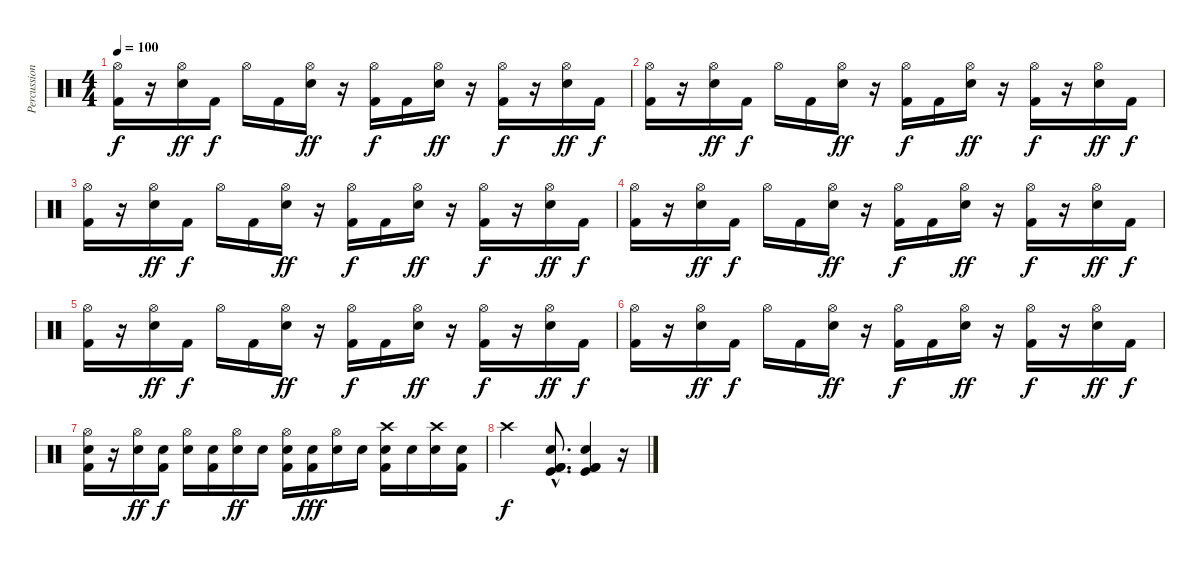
\track ("Percussion" "Percussion") {instrument percussion}
\staff {score}
\articulation defaults
\ts (4 4)
\tempo 100
\clef neutral
\ks c
("Hi-Hat (open)" "Kick (hit) 2").16{dy f} r.16 ("Hi-Hat (open)" "Electric Snare (hit)").16{dy ff} "Kick (hit) 2".16{dy f} "Hi-Hat (open)".16 "Kick (hit) 2".16 ("Hi-Hat (open)" "Electric Snare (hit)").16{dy ff} r.16 ("Hi-Hat (open)" "Kick (hit) 2").16{dy f} "Kick (hit) 2".16 ("Hi-Hat (open)" "Electric Snare (hit)").16{dy ff} r.16 ("Hi-Hat (open)" "Kick (hit) 2").16{dy f} r.16 ("Hi-Hat (open)" "Electric Snare (hit)").16{dy ff} "Kick (hit) 2".16{dy f} |
("Hi-Hat (open)" "Kick (hit) 2").16 r.16 ("Hi-Hat (open)" "Electric Snare (hit)").16{dy ff} "Kick (hit) 2".16{dy f} "Hi-Hat (open)".16 "Kick (hit) 2".16 ("Hi-Hat (open)" "Electric Snare (hit)").16{dy ff} r.16 ("Hi-Hat (open)" "Kick (hit) 2").16{dy f} "Kick (hit) 2".16 ("Hi-Hat (open)" "Electric Snare (hit)").16{dy ff} r.16 ("Hi-Hat (open)" "Kick (hit) 2").16{dy f} r.16 ("Hi-Hat (open)" "Electric Snare (hit)").16{dy ff} "Kick (hit) 2".16{dy f} |
("Hi-Hat (open)" "Kick (hit) 2").16 r.16 ("Hi-Hat (open)" "Electric Snare (hit)").16{dy ff} "Kick (hit) 2".16{dy f} "Hi-Hat (open)".16 "Kick (hit) 2".16 ("Hi-Hat (open)" "Electric Snare (hit)").16{dy ff} r.16 ("Hi-Hat (open)" "Kick (hit) 2").16{dy f} "Kick (hit) 2".16 ("Hi-Hat (open)" "Electric Snare (hit)").16{dy ff} r.16 ("Hi-Hat (open)" "Kick (hit) 2").16{dy f} r.16 ("Hi-Hat (open)" "Electric Snare (hit)").16{dy ff} "Kick (hit) 2".16{dy f} |
("Hi-Hat (open)" "Kick (hit) 2").16 r.16 ("Hi-Hat (open)" "Electric Snare (hit)").16{dy ff} "Kick (hit) 2".16{dy f} "Hi-Hat (open)".16 "Kick (hit) 2".16 ("Hi-Hat (open)" "Electric Snare (hit)").16{dy ff} r.16 ("Hi-Hat (open)" "Kick (hit) 2").16{dy f} "Kick (hit) 2".16 ("Hi-Hat (open)" "Electric Snare (hit)").16{dy ff} r.16 ("Hi-Hat (open)" "Kick (hit) 2").16{dy f} r.16 ("Hi-Hat (open)" "Electric Snare (hit)").16{dy ff} "Kick (hit) 2".16{dy f} |
("Hi-Hat (open)" "Kick (hit) 2").16 r.16 ("Hi-Hat (open)" "Electric Snare (hit)").16{dy ff} "Kick (hit) 2".16{dy f} "Hi-Hat (open)".16 "Kick (hit) 2".16 ("Hi-Hat (open)" "Electric Snare (hit)").16{dy ff} r.16 ("Hi-Hat (open)" "Kick (hit) 2").16{dy f} "Kick (hit) 2".16 ("Hi-Hat (open)" "Electric Snare (hit)").16{dy ff} r.16 ("Hi-Hat (open)" "Kick (hit) 2").16{dy f} r.16 ("Hi-Hat (open)" "Electric Snare (hit)").16{dy ff} "Kick (hit) 2".16{dy f} |
("Hi-Hat (open)" "Kick (hit) 2").16 r.16 ("Hi-Hat (open)" "Electric Snare (hit)").16{dy ff} "Kick (hit) 2".16{dy f} "Hi-Hat (open)".16 "Kick (hit) 2".16 ("Hi-Hat (open)" "Electric Snare (hit)").16{dy ff} r.16 ("Hi-Hat (open)" "Kick (hit) 2").16{dy f} "Kick (hit) 2".16 ("Hi-Hat (open)" "Electric Snare (hit)").16{dy ff} r.16 ("Hi-Hat (open)" "Kick (hit) 2").16{dy f} r.16 ("Hi-Hat (open)" "Electric Snare (hit)").16{dy ff} "Kick (hit) 2".16{dy f} |
("Hi-Hat (open)" "Electric Snare (hit)" "Kick (hit) 2").16 r.16 ("Hi-Hat (open)" "Electric Snare (hit)").16{dy ff} ("Electric Snare (hit)" "Kick (hit) 2").16{dy f} ("Hi-Hat (open)" "Electric Snare (hit)").16 ("Electric Snare (hit)" "Kick (hit) 2").16 ("Hi-Hat (open)" "Electric Snare (hit)").16{dy ff} "Electric Snare (hit)".16 ("Hi-Hat (open)" "Electric Snare (hit)" "Kick (hit) 2").16 ("Electric Snare (hit)" "Kick (hit) 2").16{dy fff} ("Hi-Hat (open)" "Electric Snare (hit)").16 "Electric Snare (hit)".16 ("Crash high (hit)" "Electric Snare (hit)" "Kick (hit) 2").16 "Electric Snare (hit)".16 ("Crash high (hit)" "Electric Snare (hit)").16 ("Electric Snare (hit)" "Kick (hit) 2").16 |
"Crash high (hit)".2{dy f} ("Snare (hit) 2"{hac} "Kick (hit)"{hac} "Kick (hit) 2"{hac} "Kick (hit) 2"{hac}).8{d} ("Snare (hit) 2" "Kick (hit)" "Kick (hit) 2" "Kick (hit) 2").4 r.16
